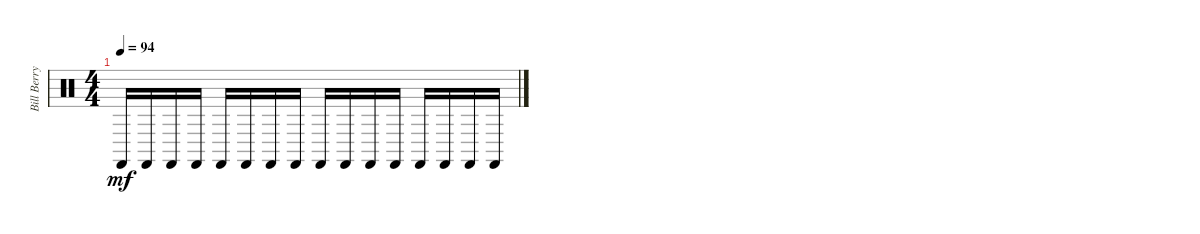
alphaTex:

\track ("Bill Berry - Percussion" "Bill Berry") {instrument percussion}
\staff {score}
\articulation defaults
\ts (4 4)
\tempo 94
\clef neutral
\ks c "Castanets (hit)".16{dy mf} "Castanets (hit)".16 "Castanets (hit)".16 "Castanets (hit)".16 "Castanets (hit)".16 "Castanets (hit)".16 "Castanets (hit)".16 "Castanets (hit)".16 "Castanets (hit)".16 "Castanets (hit)".16 "Castanets (hit)".16 "Castanets (hit)".16 "Castanets (hit)".16 "Castanets (hit)".16 "Castanets (hit)".16 "Castanets (hit)".16
